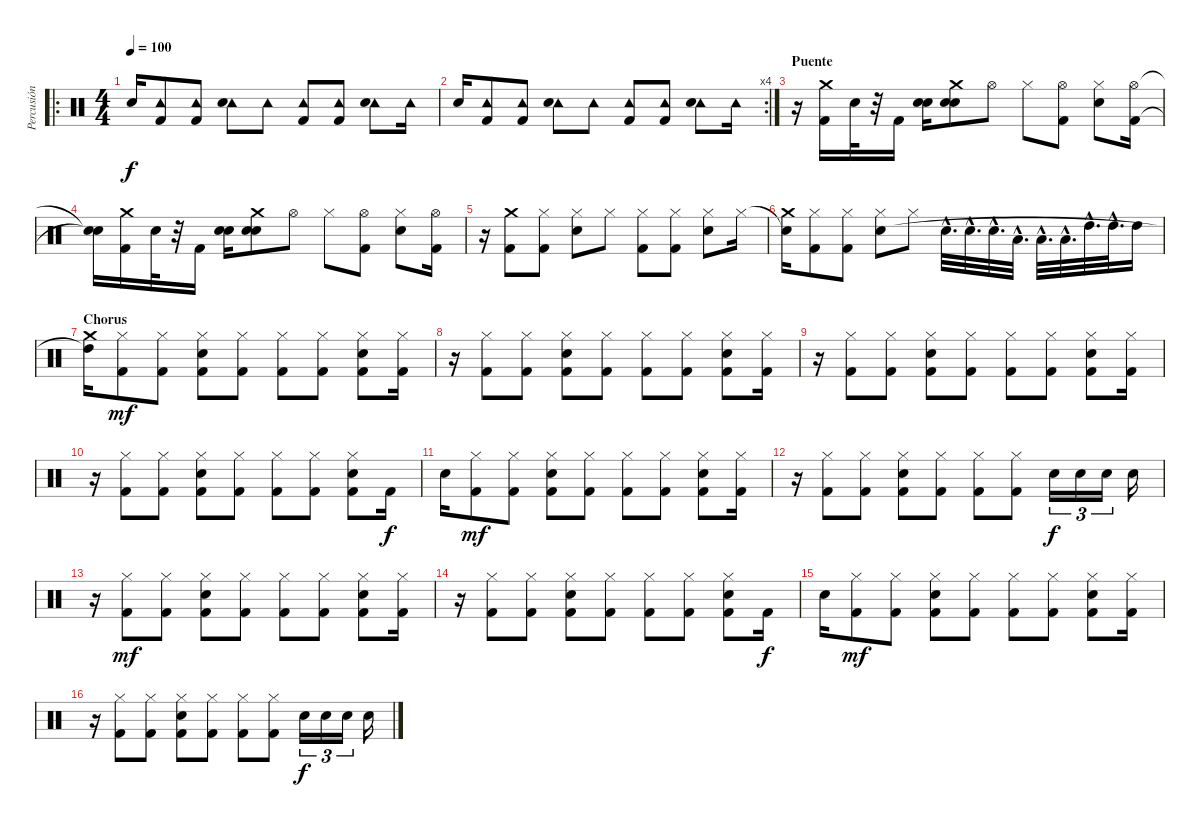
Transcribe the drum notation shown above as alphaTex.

\track ("Percusión" "Percusión") {instrument percussion}
\staff {score}
\articulation defaults
\ro
\ts (4 4)
\tempo 100
\clef neutral
\ks c "Electric Snare (hit)".16{dy f}
("Tambourine (hit)" "Kick (hit) 2").8 ("Tambourine (hit)" "Kick (hit) 2").8 ("Tambourine (hit)" "Electric Snare (hit)").8 "Tambourine (hit)".8 ("Tambourine (hit)" "Kick (hit) 2").8 ("Tambourine (hit)" "Kick (hit) 2").8 ("Tambourine (hit)" "Electric Snare (hit)").8 "Tambourine (hit)".16 |
\rc 4 "Electric Snare (hit)".16
("Tambourine (hit)" "Kick (hit) 2").8 ("Tambourine (hit)" "Kick (hit) 2").8 ("Tambourine (hit)" "Electric Snare (hit)").8 "Tambourine (hit)".8 ("Tambourine (hit)" "Kick (hit) 2").8 ("Tambourine (hit)" "Kick (hit) 2").8 ("Tambourine (hit)" "Electric Snare (hit)").8 "Tambourine (hit)".16 |
\section ("" "Puente")
r.16 ("Crash medium (hit)" "Kick (hit) 2").16 "Electric Snare (hit)".32 r.32 "Kick (hit) 2".16 ("Electric Snare (hit)" "Electric Snare (hit)").16 ("Crash medium (hit)" "Electric Snare (hit)" "Electric Snare (hit)").8 "Hi-Hat (open)".8 "Hi-Hat (closed)".8 ("Hi-Hat (open)" "Kick (hit) 2").8 ("Hi-Hat (closed)" "Electric Snare (hit)").8 ("Hi-Hat (open)" "Kick (hit) 2").16 |
("Snare (hit)"{t} "Snare (hit)"{t}).16 ("Crash medium (hit)" "Kick (hit) 2").16 "Electric Snare (hit)".32 r.32 "Kick (hit) 2".16 ("Electric Snare (hit)" "Electric Snare (hit)").16 ("Crash medium (hit)" "Electric Snare (hit)" "Electric Snare (hit)").8 "Hi-Hat (open)".8 "Hi-Hat (closed)".8 ("Hi-Hat (open)" "Kick (hit) 2").8 ("Hi-Hat (closed)" "Electric Snare (hit)").8 ("Hi-Hat (open)" "Kick (hit) 2").16 |
r.16 ("Crash medium (hit)" "Kick (hit) 2").8 ("Hi-Hat (closed)" "Kick (hit) 2").8 ("Hi-Hat (closed)" "Electric Snare (hit)").8 "Hi-Hat (closed)".8 ("Hi-Hat (closed)" "Kick (hit) 2").8 ("Hi-Hat (closed)" "Kick (hit) 2").8 ("Hi-Hat (closed)" "Electric Snare (hit)").8 "Hi-Hat (closed)".16 |
("Snare (hit)"{t} "Crash medium (hit)").16 ("Hi-Hat (closed)" "Kick (hit) 2").8 ("Hi-Hat (closed)" "Kick (hit) 2").8 ("Hi-Hat (closed)" "Electric Snare (hit)").8 "Hi-Hat (closed)".8 "Electric Snare (hit)"{hac}.32{d} "Electric Snare (hit)"{hac}.32{d} "Electric Snare (hit)"{hac}.32{d} "Low Tom (hit)"{hac}.32{d} "Low Tom (hit)"{hac}.32{d} "Low Tom (hit)"{hac}.32{d} "High Tom (hit)"{hac}.32{d} "High Tom (hit)"{hac}.32{d} "High Tom (hit)".16 |
\section ("" "Chorus")
("Crash medium (hit)" "High Tom (hit)"{t}).16 ("Hi-Hat (closed)" "Kick (hit) 2").8{dy mf} ("Hi-Hat (closed)" "Kick (hit) 2").8 ("Hi-Hat (closed)" "Electric Snare (hit)" "Kick (hit) 2").8 ("Hi-Hat (closed)" "Kick (hit) 2").8 ("Hi-Hat (closed)" "Kick (hit) 2").8 ("Hi-Hat (closed)" "Kick (hit) 2").8 ("Hi-Hat (closed)" "Electric Snare (hit)" "Kick (hit) 2").8 ("Hi-Hat (closed)" "Kick (hit) 2").16 |
r.16 ("Hi-Hat (closed)" "Kick (hit) 2").8 ("Hi-Hat (closed)" "Kick (hit) 2").8 ("Hi-Hat (closed)" "Electric Snare (hit)" "Kick (hit) 2").8 ("Hi-Hat (closed)" "Kick (hit) 2").8 ("Hi-Hat (closed)" "Kick (hit) 2").8 ("Hi-Hat (closed)" "Kick (hit) 2").8 ("Hi-Hat (closed)" "Electric Snare (hit)" "Kick (hit) 2").8 ("Hi-Hat (closed)" "Kick (hit) 2").16 |
r.16 ("Hi-Hat (closed)" "Kick (hit) 2").8 ("Hi-Hat (closed)" "Kick (hit) 2").8 ("Hi-Hat (closed)" "Electric Snare (hit)" "Kick (hit) 2").8 ("Hi-Hat (closed)" "Kick (hit) 2").8 ("Hi-Hat (closed)" "Kick (hit) 2").8 ("Hi-Hat (closed)" "Kick (hit) 2").8 ("Hi-Hat (closed)" "Electric Snare (hit)" "Kick (hit) 2").8 ("Hi-Hat (closed)" "Kick (hit) 2").16 |
r.16 ("Hi-Hat (closed)" "Kick (hit) 2").8 ("Hi-Hat (closed)" "Kick (hit) 2").8 ("Hi-Hat (closed)" "Electric Snare (hit)" "Kick (hit) 2").8 ("Hi-Hat (closed)" "Kick (hit) 2").8 ("Hi-Hat (closed)" "Kick (hit) 2").8 ("Hi-Hat (closed)" "Kick (hit) 2").8 ("Hi-Hat (closed)" "Electric Snare (hit)" "Kick (hit) 2").8 "Kick (hit) 2".16{dy f} |
"Electric Snare (hit)".16 ("Hi-Hat (closed)" "Kick (hit) 2").8{dy mf} ("Hi-Hat (closed)" "Kick (hit) 2").8 ("Hi-Hat (closed)" "Electric Snare (hit)" "Kick (hit) 2").8 ("Hi-Hat (closed)" "Kick (hit) 2").8 ("Hi-Hat (closed)" "Kick (hit) 2").8 ("Hi-Hat (closed)" "Kick (hit) 2").8 ("Hi-Hat (closed)" "Electric Snare (hit)" "Kick (hit) 2").8 ("Hi-Hat (closed)" "Kick (hit) 2").16 |
r.16 ("Hi-Hat (closed)" "Kick (hit) 2").8 ("Hi-Hat (closed)" "Kick (hit) 2").8 ("Hi-Hat (closed)" "Electric Snare (hit)" "Kick (hit) 2").8 ("Hi-Hat (closed)" "Kick (hit) 2").8 ("Hi-Hat (closed)" "Kick (hit) 2").8 ("Hi-Hat (closed)" "Kick (hit) 2").8 "Electric Snare (hit)".16{tu (3 2) dy f} "Electric Snare (hit)".16{tu (3 2)} "Electric Snare (hit)".16{tu (3 2)} "Electric Snare (hit)".16 |
r.16 ("Hi-Hat (closed)" "Kick (hit) 2").8{dy mf} ("Hi-Hat (closed)" "Kick (hit) 2").8 ("Hi-Hat (closed)" "Electric Snare (hit)" "Kick (hit) 2").8 ("Hi-Hat (closed)" "Kick (hit) 2").8 ("Hi-Hat (closed)" "Kick (hit) 2").8 ("Hi-Hat (closed)" "Kick (hit) 2").8 ("Hi-Hat (closed)" "Electric Snare (hit)" "Kick (hit) 2").8 ("Hi-Hat (closed)" "Kick (hit) 2").16 |
r.16 ("Hi-Hat (closed)" "Kick (hit) 2").8 ("Hi-Hat (closed)" "Kick (hit) 2").8 ("Hi-Hat (closed)" "Electric Snare (hit)" "Kick (hit) 2").8 ("Hi-Hat (closed)" "Kick (hit) 2").8 ("Hi-Hat (closed)" "Kick (hit) 2").8 ("Hi-Hat (closed)" "Kick (hit) 2").8 ("Hi-Hat (closed)" "Electric Snare (hit)" "Kick (hit) 2").8 "Kick (hit) 2".16{dy f} |
"Electric Snare (hit)".16 ("Hi-Hat (closed)" "Kick (hit) 2").8{dy mf} ("Hi-Hat (closed)" "Kick (hit) 2").8 ("Hi-Hat (closed)" "Electric Snare (hit)" "Kick (hit) 2").8 ("Hi-Hat (closed)" "Kick (hit) 2").8 ("Hi-Hat (closed)" "Kick (hit) 2").8 ("Hi-Hat (closed)" "Kick (hit) 2").8 ("Hi-Hat (closed)" "Electric Snare (hit)" "Kick (hit) 2").8 ("Hi-Hat (closed)" "Kick (hit) 2").16 |
r.16 ("Hi-Hat (closed)" "Kick (hit) 2").8 ("Hi-Hat (closed)" "Kick (hit) 2").8 ("Hi-Hat (closed)" "Electric Snare (hit)" "Kick (hit) 2").8 ("Hi-Hat (closed)" "Kick (hit) 2").8 ("Hi-Hat (closed)" "Kick (hit) 2").8 ("Hi-Hat (closed)" "Kick (hit) 2").8 "Electric Snare (hit)".16{tu (3 2) dy f} "Electric Snare (hit)".16{tu (3 2)} "Electric Snare (hit)".16{tu (3 2)} "Electric Snare (hit)".16
